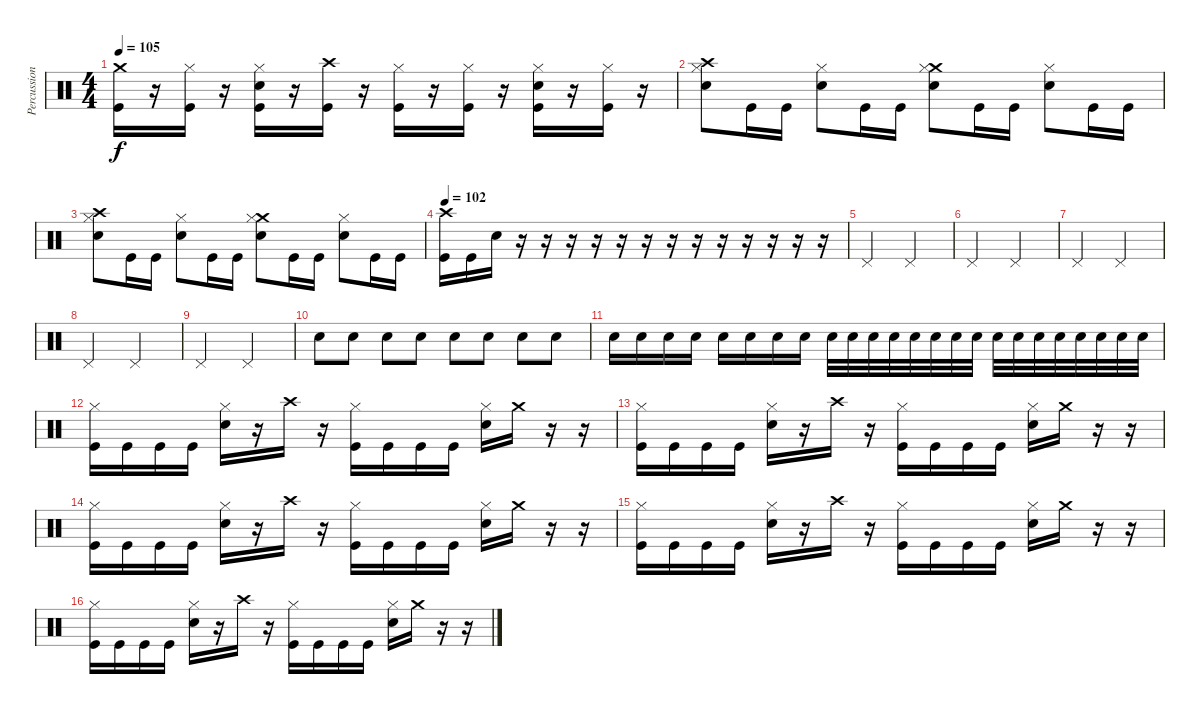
\track ("Percussion" "Percussion") {instrument percussion}
\staff {score}
\articulation defaults
\ts (4 4)
\tempo 105
\clef neutral
\ks c
("Crash medium (hit)" "Kick (hit)").16{dy f} r.16 ("Hi-Hat (closed)" "Kick (hit)").16 r.16 ("Hi-Hat (closed)" "Snare (hit) 2" "Kick (hit)").16 r.16 ("Crash high (hit)" "Kick (hit)").16 r.16 ("Hi-Hat (closed)" "Kick (hit)").16 r.16 ("Hi-Hat (closed)" "Kick (hit)").16 r.16 ("Hi-Hat (closed)" "Snare (hit) 2" "Kick (hit)").16 r.16 ("Hi-Hat (closed)" "Kick (hit)").16 r.16 |
("Crash high (hit)" "Hi-Hat (closed)" "Snare (hit) 2").8 "Kick (hit)".16 "Kick (hit)".16 ("Hi-Hat (closed)" "Snare (hit) 2").8 "Kick (hit)".16 "Kick (hit)".16 ("Crash medium (hit)" "Hi-Hat (closed)" "Snare (hit) 2").8 "Kick (hit)".16 "Kick (hit)".16 ("Hi-Hat (closed)" "Snare (hit) 2").8 "Kick (hit)".16 "Kick (hit)".16 |
("Crash high (hit)" "Hi-Hat (closed)" "Snare (hit) 2").8 "Kick (hit)".16 "Kick (hit)".16 ("Hi-Hat (closed)" "Snare (hit) 2").8 "Kick (hit)".16 "Kick (hit)".16 ("Crash medium (hit)" "Hi-Hat (closed)" "Snare (hit) 2").8 "Kick (hit)".16 "Kick (hit)".16 ("Hi-Hat (closed)" "Snare (hit) 2").8 "Kick (hit)".16 "Kick (hit)".16 |
\tempo 97
\tempo 102
("Crash high (hit)" "Kick (hit)").16 "Kick (hit)".16 "Snare (hit) 2".16 r.16 r.16 r.16 r.16 r.16 r.16 r.16 r.16 r.16 r.16 r.16 r.16 r.16 |
"Pedal Hi-Hat (hit)".2 "Pedal Hi-Hat (hit)".2 |
"Pedal Hi-Hat (hit)".2 "Pedal Hi-Hat (hit)".2 |
"Pedal Hi-Hat (hit)".2 "Pedal Hi-Hat (hit)".2 |
"Pedal Hi-Hat (hit)".2 "Pedal Hi-Hat (hit)".2 |
"Pedal Hi-Hat (hit)".2 "Pedal Hi-Hat (hit)".2 |
"Snare (hit) 2".8 "Snare (hit) 2".8 "Snare (hit) 2".8 "Snare (hit) 2".8 "Snare (hit) 2".8 "Snare (hit) 2".8 "Snare (hit) 2".8 "Snare (hit) 2".8 |
"Snare (hit) 2".16 "Snare (hit) 2".16 "Snare (hit) 2".16 "Snare (hit) 2".16 "Snare (hit) 2".16 "Snare (hit) 2".16 "Snare (hit) 2".16 "Snare (hit) 2".16 "Snare (hit) 2".32 "Snare (hit) 2".32 "Snare (hit) 2".32 "Snare (hit) 2".32 "Snare (hit) 2".32 "Snare (hit) 2".32 "Snare (hit) 2".32 "Snare (hit) 2".32 "Snare (hit) 2".32 "Snare (hit) 2".32 "Snare (hit) 2".32 "Snare (hit) 2".32 "Snare (hit) 2".32 "Snare (hit) 2".32 "Snare (hit) 2".32 "Snare (hit) 2".32 |
("Hi-Hat (closed)" "Kick (hit)").16 "Kick (hit)".16 "Kick (hit)".16 "Kick (hit)".16 ("Hi-Hat (closed)" "Snare (hit) 2").16 r.16 "Crash high (hit)".16 r.16 ("Hi-Hat (closed)" "Kick (hit)").16 "Kick (hit)".16 "Kick (hit)".16 "Kick (hit)".16 ("Hi-Hat (closed)" "Snare (hit) 2").16 "Crash medium (hit)".16 r.16 r.16 |
("Hi-Hat (closed)" "Kick (hit)").16 "Kick (hit)".16 "Kick (hit)".16 "Kick (hit)".16 ("Hi-Hat (closed)" "Snare (hit) 2").16 r.16 "Crash high (hit)".16 r.16 ("Hi-Hat (closed)" "Kick (hit)").16 "Kick (hit)".16 "Kick (hit)".16 "Kick (hit)".16 ("Hi-Hat (closed)" "Snare (hit) 2").16 "Crash medium (hit)".16 r.16 r.16 |
("Hi-Hat (closed)" "Kick (hit)").16 "Kick (hit)".16 "Kick (hit)".16 "Kick (hit)".16 ("Hi-Hat (closed)" "Snare (hit) 2").16 r.16 "Crash high (hit)".16 r.16 ("Hi-Hat (closed)" "Kick (hit)").16 "Kick (hit)".16 "Kick (hit)".16 "Kick (hit)".16 ("Hi-Hat (closed)" "Snare (hit) 2").16 "Crash medium (hit)".16 r.16 r.16 |
("Hi-Hat (closed)" "Kick (hit)").16 "Kick (hit)".16 "Kick (hit)".16 "Kick (hit)".16 ("Hi-Hat (closed)" "Snare (hit) 2").16 r.16 "Crash high (hit)".16 r.16 ("Hi-Hat (closed)" "Kick (hit)").16 "Kick (hit)".16 "Kick (hit)".16 "Kick (hit)".16 ("Hi-Hat (closed)" "Snare (hit) 2").16 "Crash medium (hit)".16 r.16 r.16 |
("Hi-Hat (closed)" "Kick (hit)").16 "Kick (hit)".16 "Kick (hit)".16 "Kick (hit)".16 ("Hi-Hat (closed)" "Snare (hit) 2").16 r.16 "Crash high (hit)".16 r.16 ("Hi-Hat (closed)" "Kick (hit)").16 "Kick (hit)".16 "Kick (hit)".16 "Kick (hit)".16 ("Hi-Hat (closed)" "Snare (hit) 2").16 "Crash medium (hit)".16 r.16 r.16
